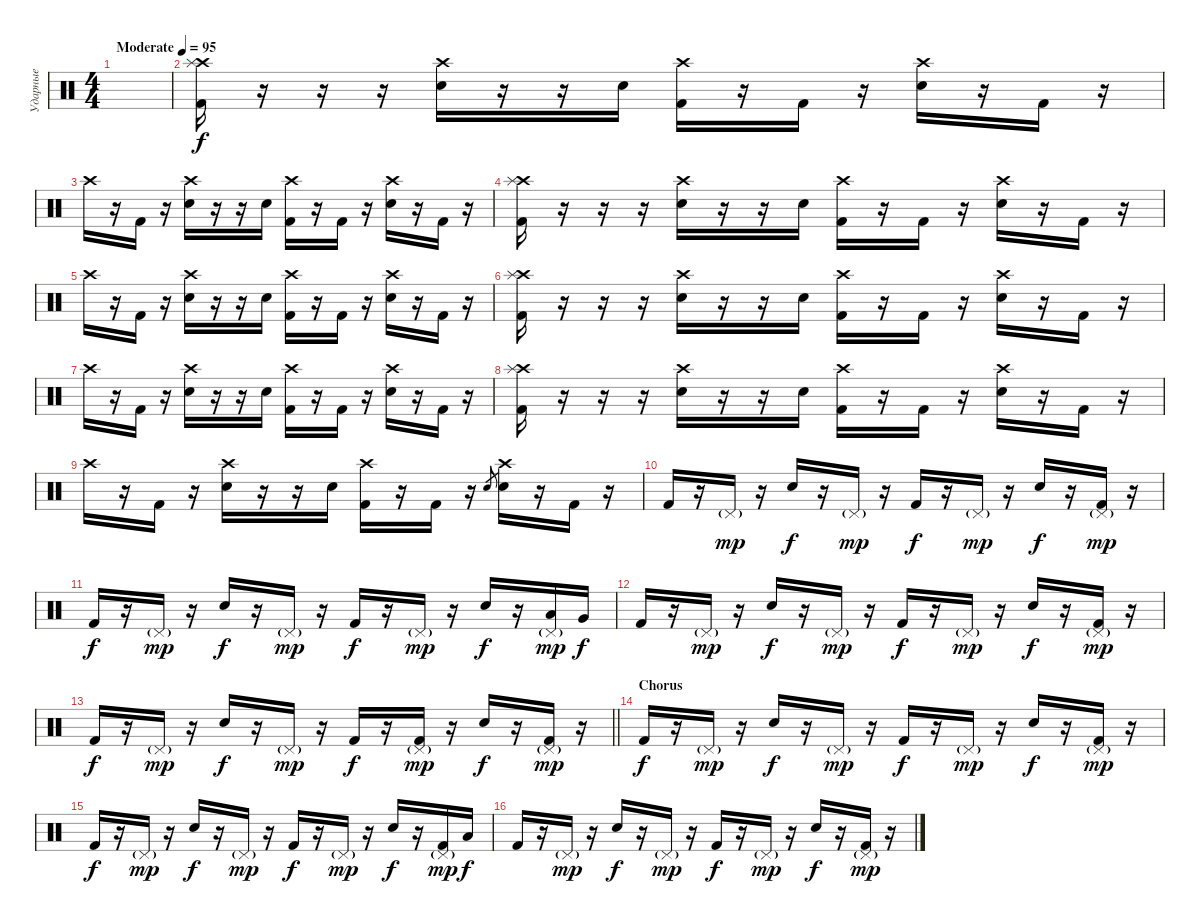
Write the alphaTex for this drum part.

\track ("Ударные" "Ударные") {instrument percussion}
\staff {score}
\articulation defaults
\ts (4 4)
\tempo (95 "Moderate")
\clef neutral
\ks c
|
("Crash high (hit)" "Splash (hit)" "Kick (hit) 2").16 r.16 r.16 r.16 ("Crash high (hit)" "Snare (hit) 2").16 r.16 r.16 "Snare (hit) 2".16 ("Crash high (hit)" "Kick (hit) 2").16 r.16 "Kick (hit) 2".16 r.16 ("Crash high (hit)" "Snare (hit) 2").16 r.16 "Kick (hit) 2".16 r.16 |
"Crash high (hit)".16 r.16 "Kick (hit) 2".16 r.16 ("Crash high (hit)" "Snare (hit) 2").16 r.16 r.16 "Snare (hit) 2".16 ("Crash high (hit)" "Kick (hit) 2").16 r.16 "Kick (hit) 2".16 r.16 ("Crash high (hit)" "Snare (hit) 2").16 r.16 "Kick (hit) 2".16 r.16 |
("Crash high (hit)" "Splash (hit)" "Kick (hit) 2").16 r.16 r.16 r.16 ("Crash high (hit)" "Snare (hit) 2").16 r.16 r.16 "Snare (hit) 2".16 ("Crash high (hit)" "Kick (hit) 2").16 r.16 "Kick (hit) 2".16 r.16 ("Crash high (hit)" "Snare (hit) 2").16 r.16 "Kick (hit) 2".16 r.16 |
"Crash high (hit)".16 r.16 "Kick (hit) 2".16 r.16 ("Crash high (hit)" "Snare (hit) 2").16 r.16 r.16 "Snare (hit) 2".16 ("Crash high (hit)" "Kick (hit) 2").16 r.16 "Kick (hit) 2".16 r.16 ("Crash high (hit)" "Snare (hit) 2").16 r.16 "Kick (hit) 2".16 r.16 |
("Crash high (hit)" "Splash (hit)" "Kick (hit) 2").16 r.16 r.16 r.16 ("Crash high (hit)" "Snare (hit) 2").16 r.16 r.16 "Snare (hit) 2".16 ("Crash high (hit)" "Kick (hit) 2").16 r.16 "Kick (hit) 2".16 r.16 ("Crash high (hit)" "Snare (hit) 2").16 r.16 "Kick (hit) 2".16 r.16 |
"Crash high (hit)".16 r.16 "Kick (hit) 2".16 r.16 ("Crash high (hit)" "Snare (hit) 2").16 r.16 r.16 "Snare (hit) 2".16 ("Crash high (hit)" "Kick (hit) 2").16 r.16 "Kick (hit) 2".16 r.16 ("Crash high (hit)" "Snare (hit) 2").16 r.16 "Kick (hit) 2".16 r.16 |
("Crash high (hit)" "Splash (hit)" "Kick (hit) 2").16 r.16 r.16 r.16 ("Crash high (hit)" "Snare (hit) 2").16 r.16 r.16 "Snare (hit) 2".16 ("Crash high (hit)" "Kick (hit) 2").16 r.16 "Kick (hit) 2".16 r.16 ("Crash high (hit)" "Snare (hit) 2").16 r.16 "Kick (hit) 2".16 r.16 |
"Crash high (hit)".16 r.16 "Kick (hit) 2".16 r.16 ("Crash high (hit)" "Snare (hit) 2").16 r.16 r.16 "Snare (hit) 2".16 ("Crash high (hit)" "Kick (hit) 2").16 r.16 "Kick (hit) 2".16 r.16 "Snare (hit) 2".8{gr} ("Crash high (hit)" "Snare (hit) 2").16 r.16 "Kick (hit) 2".16 r.16 |
"Kick (hit) 2".16 r.16 "Pedal Hi-Hat (hit)"{g}.16{dy mp} r.16 "Snare (hit) 2".16{dy f} r.16 "Pedal Hi-Hat (hit)"{g}.16{dy mp} r.16 "Kick (hit) 2".16{dy f} r.16 "Pedal Hi-Hat (hit)"{g}.16{dy mp} r.16 "Snare (hit) 2".16{dy f} r.16 ("Pedal Hi-Hat (hit)"{g} "Kick (hit) 2").16{dy mp} r.16 |
"Kick (hit) 2".16{dy f} r.16 "Pedal Hi-Hat (hit)"{g}.16{dy mp} r.16 "Snare (hit) 2".16{dy f} r.16 "Pedal Hi-Hat (hit)"{g}.16{dy mp} r.16 "Kick (hit) 2".16{dy f} r.16 "Pedal Hi-Hat (hit)"{g}.16{dy mp} r.16 "Snare (hit) 2".16{dy f} r.16 ("Pedal Hi-Hat (hit)"{g} "Low Tom (hit)").16{dy mp} "Very Low Tom (hit)".16{dy f} |
"Kick (hit) 2".16 r.16 "Pedal Hi-Hat (hit)"{g}.16{dy mp} r.16 "Snare (hit) 2".16{dy f} r.16 "Pedal Hi-Hat (hit)"{g}.16{dy mp} r.16 "Kick (hit) 2".16{dy f} r.16 "Pedal Hi-Hat (hit)"{g}.16{dy mp} r.16 "Snare (hit) 2".16{dy f} r.16 ("Pedal Hi-Hat (hit)"{g} "Kick (hit) 2").16{dy mp} r.16 |
\barLineRight lightlight "Kick (hit) 2".16{dy f}
r.16 "Pedal Hi-Hat (hit)"{g}.16{dy mp} r.16 "Snare (hit) 2".16{dy f} r.16 "Pedal Hi-Hat (hit)"{g}.16{dy mp} r.16 "Kick (hit) 2".16{dy f} r.16 ("Pedal Hi-Hat (hit)"{g} "Kick (hit) 2").16{dy mp} r.16 "Snare (hit) 2".16{dy f} r.16 ("Pedal Hi-Hat (hit)"{g} "Kick (hit) 2").16{dy mp} r.16 |
\section ("" "Chorus")
"Kick (hit) 2".16{dy f} r.16 "Pedal Hi-Hat (hit)"{g}.16{dy mp} r.16 "Snare (hit) 2".16{dy f} r.16 "Pedal Hi-Hat (hit)"{g}.16{dy mp} r.16 "Kick (hit) 2".16{dy f} r.16 "Pedal Hi-Hat (hit)"{g}.16{dy mp} r.16 "Snare (hit) 2".16{dy f} r.16 ("Pedal Hi-Hat (hit)"{g} "Kick (hit) 2").16{dy mp} r.16 |
"Kick (hit) 2".16{dy f} r.16 "Pedal Hi-Hat (hit)"{g}.16{dy mp} r.16 "Snare (hit) 2".16{dy f} r.16 "Pedal Hi-Hat (hit)"{g}.16{dy mp} r.16 "Kick (hit) 2".16{dy f} r.16 "Pedal Hi-Hat (hit)"{g}.16{dy mp} r.16 "Snare (hit) 2".16{dy f} r.16 ("Pedal Hi-Hat (hit)"{g} "Kick (hit) 2").16{dy mp} "Low Tom (hit)".16{dy f} |
"Kick (hit) 2".16 r.16 "Pedal Hi-Hat (hit)"{g}.16{dy mp} r.16 "Snare (hit) 2".16{dy f} r.16 "Pedal Hi-Hat (hit)"{g}.16{dy mp} r.16 "Kick (hit) 2".16{dy f} r.16 "Pedal Hi-Hat (hit)"{g}.16{dy mp} r.16 "Snare (hit) 2".16{dy f} r.16 ("Pedal Hi-Hat (hit)"{g} "Kick (hit) 2").16{dy mp} r.16
